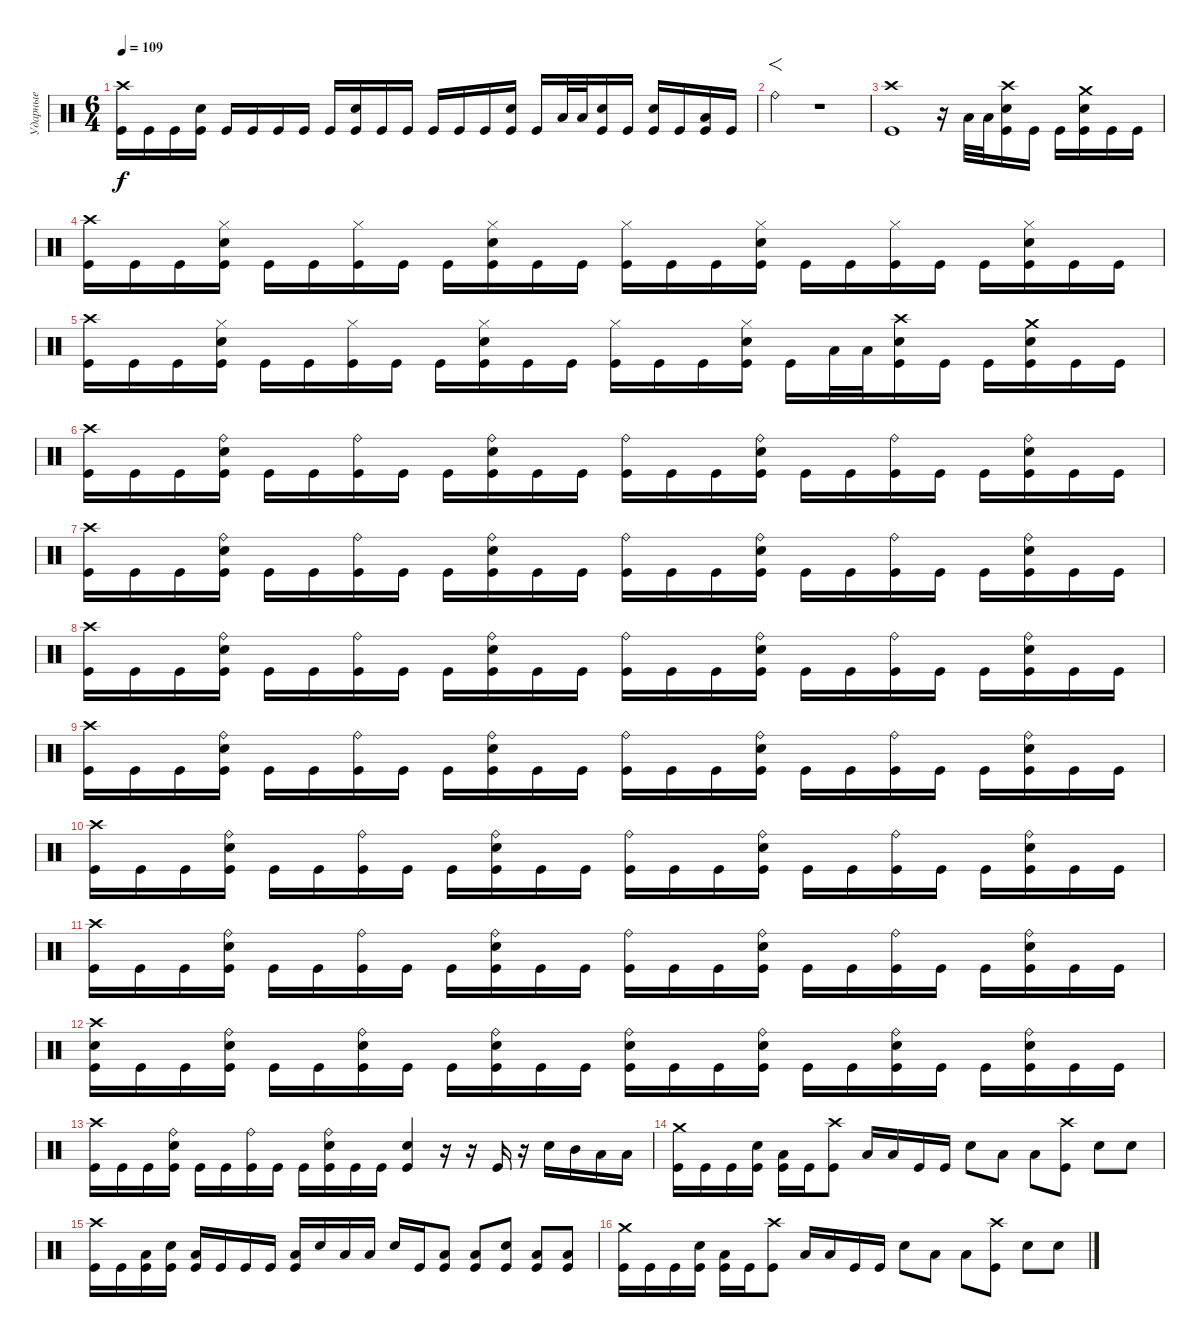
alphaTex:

\track ("Ударные" "Ударные") {instrument percussion}
\staff {score}
\articulation defaults
\ts (6 4)
\tempo 109
\clef neutral
\ks c
("Crash high (hit)" "Kick (hit)").16{dy f} "Kick (hit)".16 "Kick (hit)".16 ("Electric Snare (hit)" "Kick (hit)").16 "Kick (hit)".16 "Kick (hit)".16 "Kick (hit)".16 "Kick (hit)".16 "Kick (hit)".16 ("Electric Snare (hit)" "Kick (hit)").16 "Kick (hit)".16 "Kick (hit)".16 "Kick (hit)".16 "Kick (hit)".16 "Kick (hit)".16 ("Electric Snare (hit)" "Kick (hit)").16 "Kick (hit)".16 "Low Tom (hit)".32 "Low Tom (hit)".32 ("Electric Snare (hit)" "Kick (hit)").16 "Kick (hit)".16 ("Electric Snare (hit)" "Kick (hit)").16 "Kick (hit)".16 ("Low Tom (hit)" "Kick (hit)").16 "Kick (hit)".16 |
"Ride (bell)".2{f} r.1 |
("Crash high (hit)" "Kick (hit)").1 r.16 "Low Tom (hit)".32 "Low Tom (hit)".32 ("Crash high (hit)" "Electric Snare (hit)" "Kick (hit)").16 "Kick (hit)".16 "Kick (hit)".16 ("Crash medium (hit)" "Electric Snare (hit)" "Kick (hit)").16 "Kick (hit)".16 "Kick (hit)".16 |
("Crash high (hit)" "Kick (hit)").16 "Kick (hit)".16 "Kick (hit)".16 ("Hi-Hat (closed)" "Electric Snare (hit)" "Kick (hit)").16 "Kick (hit)".16 "Kick (hit)".16 ("Hi-Hat (closed)" "Kick (hit)").16 "Kick (hit)".16 "Kick (hit)".16 ("Hi-Hat (closed)" "Electric Snare (hit)" "Kick (hit)").16 "Kick (hit)".16 "Kick (hit)".16 ("Hi-Hat (closed)" "Kick (hit)").16 "Kick (hit)".16 "Kick (hit)".16 ("Hi-Hat (closed)" "Electric Snare (hit)" "Kick (hit)").16 "Kick (hit)".16 "Kick (hit)".16 ("Hi-Hat (closed)" "Kick (hit)").16 "Kick (hit)".16 "Kick (hit)".16 ("Hi-Hat (closed)" "Electric Snare (hit)" "Kick (hit)").16 "Kick (hit)".16 "Kick (hit)".16 |
("Crash high (hit)" "Kick (hit)").16 "Kick (hit)".16 "Kick (hit)".16 ("Hi-Hat (closed)" "Electric Snare (hit)" "Kick (hit)").16 "Kick (hit)".16 "Kick (hit)".16 ("Hi-Hat (closed)" "Kick (hit)").16 "Kick (hit)".16 "Kick (hit)".16 ("Hi-Hat (closed)" "Electric Snare (hit)" "Kick (hit)").16 "Kick (hit)".16 "Kick (hit)".16 ("Hi-Hat (closed)" "Kick (hit)").16 "Kick (hit)".16 "Kick (hit)".16 ("Hi-Hat (closed)" "Electric Snare (hit)" "Kick (hit)").16 "Kick (hit)".16 "Low Tom (hit)".32 "Low Tom (hit)".32 ("Crash high (hit)" "Electric Snare (hit)" "Kick (hit)").16 "Kick (hit)".16 "Kick (hit)".16 ("Crash medium (hit)" "Electric Snare (hit)" "Kick (hit)").16 "Kick (hit)".16 "Kick (hit)".16 |
("Crash high (hit)" "Kick (hit)").16 "Kick (hit)".16 "Kick (hit)".16 ("Ride (bell)" "Electric Snare (hit)" "Kick (hit)").16 "Kick (hit)".16 "Kick (hit)".16 ("Ride (bell)" "Kick (hit)").16 "Kick (hit)".16 "Kick (hit)".16 ("Ride (bell)" "Electric Snare (hit)" "Kick (hit)").16 "Kick (hit)".16 "Kick (hit)".16 ("Ride (bell)" "Kick (hit)").16 "Kick (hit)".16 "Kick (hit)".16 ("Ride (bell)" "Electric Snare (hit)" "Kick (hit)").16 "Kick (hit)".16 "Kick (hit)".16 ("Ride (bell)" "Kick (hit)").16 "Kick (hit)".16 "Kick (hit)".16 ("Ride (bell)" "Electric Snare (hit)" "Kick (hit)").16 "Kick (hit)".16 "Kick (hit)".16 |
("Crash high (hit)" "Kick (hit)").16 "Kick (hit)".16 "Kick (hit)".16 ("Ride (bell)" "Electric Snare (hit)" "Kick (hit)").16 "Kick (hit)".16 "Kick (hit)".16 ("Ride (bell)" "Kick (hit)").16 "Kick (hit)".16 "Kick (hit)".16 ("Ride (bell)" "Electric Snare (hit)" "Kick (hit)").16 "Kick (hit)".16 "Kick (hit)".16 ("Ride (bell)" "Kick (hit)").16 "Kick (hit)".16 "Kick (hit)".16 ("Ride (bell)" "Electric Snare (hit)" "Kick (hit)").16 "Kick (hit)".16 "Kick (hit)".16 ("Ride (bell)" "Kick (hit)").16 "Kick (hit)".16 "Kick (hit)".16 ("Ride (bell)" "Electric Snare (hit)" "Kick (hit)").16 "Kick (hit)".16 "Kick (hit)".16 |
("Crash high (hit)" "Kick (hit)").16 "Kick (hit)".16 "Kick (hit)".16 ("Ride (bell)" "Electric Snare (hit)" "Kick (hit)").16 "Kick (hit)".16 "Kick (hit)".16 ("Ride (bell)" "Kick (hit)").16 "Kick (hit)".16 "Kick (hit)".16 ("Ride (bell)" "Electric Snare (hit)" "Kick (hit)").16 "Kick (hit)".16 "Kick (hit)".16 ("Ride (bell)" "Kick (hit)").16 "Kick (hit)".16 "Kick (hit)".16 ("Ride (bell)" "Electric Snare (hit)" "Kick (hit)").16 "Kick (hit)".16 "Kick (hit)".16 ("Ride (bell)" "Kick (hit)").16 "Kick (hit)".16 "Kick (hit)".16 ("Ride (bell)" "Electric Snare (hit)" "Kick (hit)").16 "Kick (hit)".16 "Kick (hit)".16 |
("Crash high (hit)" "Kick (hit)").16 "Kick (hit)".16 "Kick (hit)".16 ("Ride (bell)" "Electric Snare (hit)" "Kick (hit)").16 "Kick (hit)".16 "Kick (hit)".16 ("Ride (bell)" "Kick (hit)").16 "Kick (hit)".16 "Kick (hit)".16 ("Ride (bell)" "Electric Snare (hit)" "Kick (hit)").16 "Kick (hit)".16 "Kick (hit)".16 ("Ride (bell)" "Kick (hit)").16 "Kick (hit)".16 "Kick (hit)".16 ("Ride (bell)" "Electric Snare (hit)" "Kick (hit)").16 "Kick (hit)".16 "Kick (hit)".16 ("Ride (bell)" "Kick (hit)").16 "Kick (hit)".16 "Kick (hit)".16 ("Ride (bell)" "Electric Snare (hit)" "Kick (hit)").16 "Kick (hit)".16 "Kick (hit)".16 |
("Crash high (hit)" "Kick (hit)").16 "Kick (hit)".16 "Kick (hit)".16 ("Ride (bell)" "Electric Snare (hit)" "Kick (hit)").16 "Kick (hit)".16 "Kick (hit)".16 ("Ride (bell)" "Kick (hit)").16 "Kick (hit)".16 "Kick (hit)".16 ("Ride (bell)" "Electric Snare (hit)" "Kick (hit)").16 "Kick (hit)".16 "Kick (hit)".16 ("Ride (bell)" "Kick (hit)").16 "Kick (hit)".16 "Kick (hit)".16 ("Ride (bell)" "Electric Snare (hit)" "Kick (hit)").16 "Kick (hit)".16 "Kick (hit)".16 ("Ride (bell)" "Kick (hit)").16 "Kick (hit)".16 "Kick (hit)".16 ("Ride (bell)" "Electric Snare (hit)" "Kick (hit)").16 "Kick (hit)".16 "Kick (hit)".16 |
("Crash high (hit)" "Kick (hit)").16 "Kick (hit)".16 "Kick (hit)".16 ("Ride (bell)" "Electric Snare (hit)" "Kick (hit)").16 "Kick (hit)".16 "Kick (hit)".16 ("Ride (bell)" "Kick (hit)").16 "Kick (hit)".16 "Kick (hit)".16 ("Ride (bell)" "Electric Snare (hit)" "Kick (hit)").16 "Kick (hit)".16 "Kick (hit)".16 ("Ride (bell)" "Kick (hit)").16 "Kick (hit)".16 "Kick (hit)".16 ("Ride (bell)" "Electric Snare (hit)" "Kick (hit)").16 "Kick (hit)".16 "Kick (hit)".16 ("Ride (bell)" "Kick (hit)").16 "Kick (hit)".16 "Kick (hit)".16 ("Ride (bell)" "Electric Snare (hit)" "Kick (hit)").16 "Kick (hit)".16 "Kick (hit)".16 |
("Crash high (hit)" "Electric Snare (hit)" "Kick (hit)").16 "Kick (hit)".16 "Kick (hit)".16 ("Ride (bell)" "Electric Snare (hit)" "Kick (hit)").16 "Kick (hit)".16 "Kick (hit)".16 ("Ride (bell)" "Electric Snare (hit)" "Kick (hit)").16 "Kick (hit)".16 "Kick (hit)".16 ("Ride (bell)" "Electric Snare (hit)" "Kick (hit)").16 "Kick (hit)".16 "Kick (hit)".16 ("Ride (bell)" "Electric Snare (hit)" "Kick (hit)").16 "Kick (hit)".16 "Kick (hit)".16 ("Ride (bell)" "Electric Snare (hit)" "Kick (hit)").16 "Kick (hit)".16 "Kick (hit)".16 ("Ride (bell)" "Electric Snare (hit)" "Kick (hit)").16 "Kick (hit)".16 "Kick (hit)".16 ("Ride (bell)" "Electric Snare (hit)" "Kick (hit)").16 "Kick (hit)".16 "Kick (hit)".16 |
("Crash high (hit)" "Kick (hit)").16 "Kick (hit)".16 "Kick (hit)".16 ("Ride (bell)" "Electric Snare (hit)" "Kick (hit)").16 "Kick (hit)".16 "Kick (hit)".16 ("Ride (bell)" "Kick (hit)").16 "Kick (hit)".16 "Kick (hit)".16 ("Ride (bell)" "Electric Snare (hit)" "Kick (hit)").16 "Kick (hit)".16 "Kick (hit)".16 ("Electric Snare (hit)" "Kick (hit)").4 r.16 r.16 "Kick (hit)".16 r.16 "Electric Snare (hit)".16 "Mid Tom (hit)".16 "Low Tom (hit)".16 "Low Tom (hit)".16 |
("Crash medium (hit)" "Kick (hit)").16 "Kick (hit)".16 "Kick (hit)".16 ("Electric Snare (hit)" "Kick (hit)").16 ("Low Tom (hit)" "Kick (hit)").16 "Kick (hit)".16 ("Kick (hit)" "Crash high (hit)").8 "Low Tom (hit)".16 "Low Tom (hit)".16 "Kick (hit)".16 "Kick (hit)".16 "Electric Snare (hit)".8 "Low Tom (hit)".8 "Low Tom (hit)".8 ("Crash high (hit)" "Kick (hit)").8 "Electric Snare (hit)".8 "Electric Snare (hit)".8 |
("Crash high (hit)" "Kick (hit)").16 "Kick (hit)".16 ("Low Tom (hit)" "Kick (hit)").16 ("Electric Snare (hit)" "Kick (hit)").16 ("Low Tom (hit)" "Kick (hit)").16 "Kick (hit)".16 "Kick (hit)".16 "Kick (hit)".16 ("Low Tom (hit)" "Kick (hit)").16 "Electric Snare (hit)".16 "Low Tom (hit)".16 "Low Tom (hit)".16 "Electric Snare (hit)".16 "Kick (hit)".16 ("Low Tom (hit)" "Kick (hit)").8 ("Low Tom (hit)" "Kick (hit)").8 ("Electric Snare (hit)" "Kick (hit)").8 ("Low Tom (hit)" "Kick (hit)").8 ("Low Tom (hit)" "Kick (hit)").8 |
("Crash medium (hit)" "Kick (hit)").16 "Kick (hit)".16 "Kick (hit)".16 ("Electric Snare (hit)" "Kick (hit)").16 ("Low Tom (hit)" "Kick (hit)").16 "Kick (hit)".16 ("Kick (hit)" "Crash high (hit)").8 "Low Tom (hit)".16 "Low Tom (hit)".16 "Kick (hit)".16 "Kick (hit)".16 "Electric Snare (hit)".8 "Low Tom (hit)".8 "Low Tom (hit)".8 ("Crash high (hit)" "Kick (hit)").8 "Electric Snare (hit)".8 "Electric Snare (hit)".8
